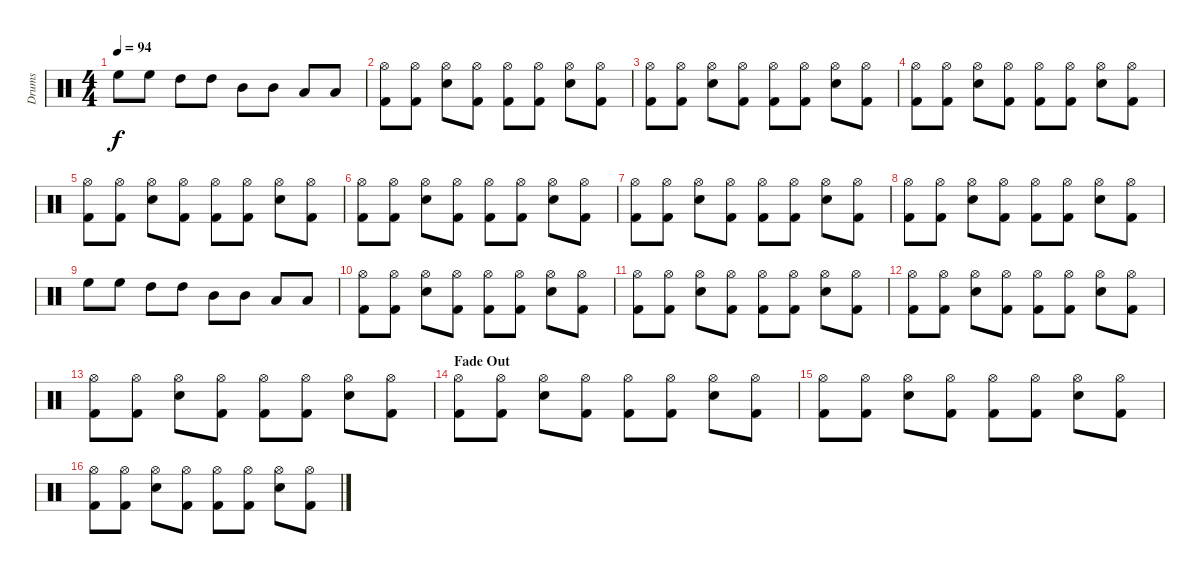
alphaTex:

\track ("Drums" "Drums") {instrument percussion}
\staff {score}
\articulation defaults
\ts (4 4)
\tempo 94
\clef neutral
\ks c "High Floor Tom (hit)".8{dy f} "High Floor Tom (hit)".8 "High Tom (hit)".8 "High Tom (hit)".8 "Mid Tom (hit)".8 "Mid Tom (hit)".8 "Low Tom (hit)".8 "Low Tom (hit)".8
|
("Kick (hit) 2" "Hi-Hat (open)").8 ("Kick (hit) 2" "Hi-Hat (open)").8 ("Snare (hit) 2" "Hi-Hat (open)").8 ("Kick (hit) 2" "Hi-Hat (open)").8 ("Kick (hit) 2" "Hi-Hat (open)").8 ("Kick (hit) 2" "Hi-Hat (open)").8 ("Snare (hit) 2" "Hi-Hat (open)").8 ("Kick (hit) 2" "Hi-Hat (open)").8 |
("Kick (hit) 2" "Hi-Hat (open)").8 ("Kick (hit) 2" "Hi-Hat (open)").8 ("Snare (hit) 2" "Hi-Hat (open)").8 ("Kick (hit) 2" "Hi-Hat (open)").8 ("Kick (hit) 2" "Hi-Hat (open)").8 ("Kick (hit) 2" "Hi-Hat (open)").8 ("Snare (hit) 2" "Hi-Hat (open)").8 ("Kick (hit) 2" "Hi-Hat (open)").8 |
("Kick (hit) 2" "Hi-Hat (open)").8 ("Kick (hit) 2" "Hi-Hat (open)").8 ("Snare (hit) 2" "Hi-Hat (open)").8 ("Kick (hit) 2" "Hi-Hat (open)").8 ("Kick (hit) 2" "Hi-Hat (open)").8 ("Kick (hit) 2" "Hi-Hat (open)").8 ("Snare (hit) 2" "Hi-Hat (open)").8 ("Kick (hit) 2" "Hi-Hat (open)").8 |
("Kick (hit) 2" "Hi-Hat (open)").8 ("Kick (hit) 2" "Hi-Hat (open)").8 ("Snare (hit) 2" "Hi-Hat (open)").8 ("Kick (hit) 2" "Hi-Hat (open)").8 ("Kick (hit) 2" "Hi-Hat (open)").8 ("Kick (hit) 2" "Hi-Hat (open)").8 ("Snare (hit) 2" "Hi-Hat (open)").8 ("Kick (hit) 2" "Hi-Hat (open)").8 |
("Kick (hit) 2" "Hi-Hat (open)").8 ("Kick (hit) 2" "Hi-Hat (open)").8 ("Snare (hit) 2" "Hi-Hat (open)").8 ("Kick (hit) 2" "Hi-Hat (open)").8 ("Kick (hit) 2" "Hi-Hat (open)").8 ("Kick (hit) 2" "Hi-Hat (open)").8 ("Snare (hit) 2" "Hi-Hat (open)").8 ("Kick (hit) 2" "Hi-Hat (open)").8 |
("Kick (hit) 2" "Hi-Hat (open)").8 ("Kick (hit) 2" "Hi-Hat (open)").8 ("Snare (hit) 2" "Hi-Hat (open)").8 ("Kick (hit) 2" "Hi-Hat (open)").8 ("Kick (hit) 2" "Hi-Hat (open)").8 ("Kick (hit) 2" "Hi-Hat (open)").8 ("Snare (hit) 2" "Hi-Hat (open)").8 ("Kick (hit) 2" "Hi-Hat (open)").8 |
("Kick (hit) 2" "Hi-Hat (open)").8 ("Kick (hit) 2" "Hi-Hat (open)").8 ("Snare (hit) 2" "Hi-Hat (open)").8 ("Kick (hit) 2" "Hi-Hat (open)").8 ("Kick (hit) 2" "Hi-Hat (open)").8 ("Kick (hit) 2" "Hi-Hat (open)").8 ("Snare (hit) 2" "Hi-Hat (open)").8 ("Kick (hit) 2" "Hi-Hat (open)").8 |
"High Floor Tom (hit)".8 "High Floor Tom (hit)".8 "High Tom (hit)".8 "High Tom (hit)".8 "Mid Tom (hit)".8 "Mid Tom (hit)".8 "Low Tom (hit)".8 "Low Tom (hit)".8 |
("Kick (hit) 2" "Hi-Hat (open)").8 ("Kick (hit) 2" "Hi-Hat (open)").8 ("Snare (hit) 2" "Hi-Hat (open)").8 ("Kick (hit) 2" "Hi-Hat (open)").8 ("Kick (hit) 2" "Hi-Hat (open)").8 ("Kick (hit) 2" "Hi-Hat (open)").8 ("Snare (hit) 2" "Hi-Hat (open)").8 ("Kick (hit) 2" "Hi-Hat (open)").8 |
("Kick (hit) 2" "Hi-Hat (open)").8 ("Kick (hit) 2" "Hi-Hat (open)").8 ("Snare (hit) 2" "Hi-Hat (open)").8 ("Kick (hit) 2" "Hi-Hat (open)").8 ("Kick (hit) 2" "Hi-Hat (open)").8 ("Kick (hit) 2" "Hi-Hat (open)").8 ("Snare (hit) 2" "Hi-Hat (open)").8 ("Kick (hit) 2" "Hi-Hat (open)").8 |
("Kick (hit) 2" "Hi-Hat (open)").8 ("Kick (hit) 2" "Hi-Hat (open)").8 ("Snare (hit) 2" "Hi-Hat (open)").8 ("Kick (hit) 2" "Hi-Hat (open)").8 ("Kick (hit) 2" "Hi-Hat (open)").8 ("Kick (hit) 2" "Hi-Hat (open)").8 ("Snare (hit) 2" "Hi-Hat (open)").8 ("Kick (hit) 2" "Hi-Hat (open)").8 |
("Kick (hit) 2" "Hi-Hat (open)").8 ("Kick (hit) 2" "Hi-Hat (open)").8 ("Snare (hit) 2" "Hi-Hat (open)").8 ("Kick (hit) 2" "Hi-Hat (open)").8 ("Kick (hit) 2" "Hi-Hat (open)").8 ("Kick (hit) 2" "Hi-Hat (open)").8 ("Snare (hit) 2" "Hi-Hat (open)").8 ("Kick (hit) 2" "Hi-Hat (open)").8 |
\section ("" "Fade Out")
("Kick (hit) 2" "Hi-Hat (open)").8 ("Kick (hit) 2" "Hi-Hat (open)").8 ("Snare (hit) 2" "Hi-Hat (open)").8 ("Kick (hit) 2" "Hi-Hat (open)").8 ("Kick (hit) 2" "Hi-Hat (open)").8 ("Kick (hit) 2" "Hi-Hat (open)").8 ("Snare (hit) 2" "Hi-Hat (open)").8 ("Kick (hit) 2" "Hi-Hat (open)").8 |
("Kick (hit) 2" "Hi-Hat (open)").8 ("Kick (hit) 2" "Hi-Hat (open)").8 ("Snare (hit) 2" "Hi-Hat (open)").8 ("Kick (hit) 2" "Hi-Hat (open)").8 ("Kick (hit) 2" "Hi-Hat (open)").8 ("Kick (hit) 2" "Hi-Hat (open)").8 ("Snare (hit) 2" "Hi-Hat (open)").8 ("Kick (hit) 2" "Hi-Hat (open)").8 |
("Kick (hit) 2" "Hi-Hat (open)").8 ("Kick (hit) 2" "Hi-Hat (open)").8 ("Snare (hit) 2" "Hi-Hat (open)").8 ("Kick (hit) 2" "Hi-Hat (open)").8 ("Kick (hit) 2" "Hi-Hat (open)").8 ("Kick (hit) 2" "Hi-Hat (open)").8 ("Snare (hit) 2" "Hi-Hat (open)").8 ("Kick (hit) 2" "Hi-Hat (open)").8
